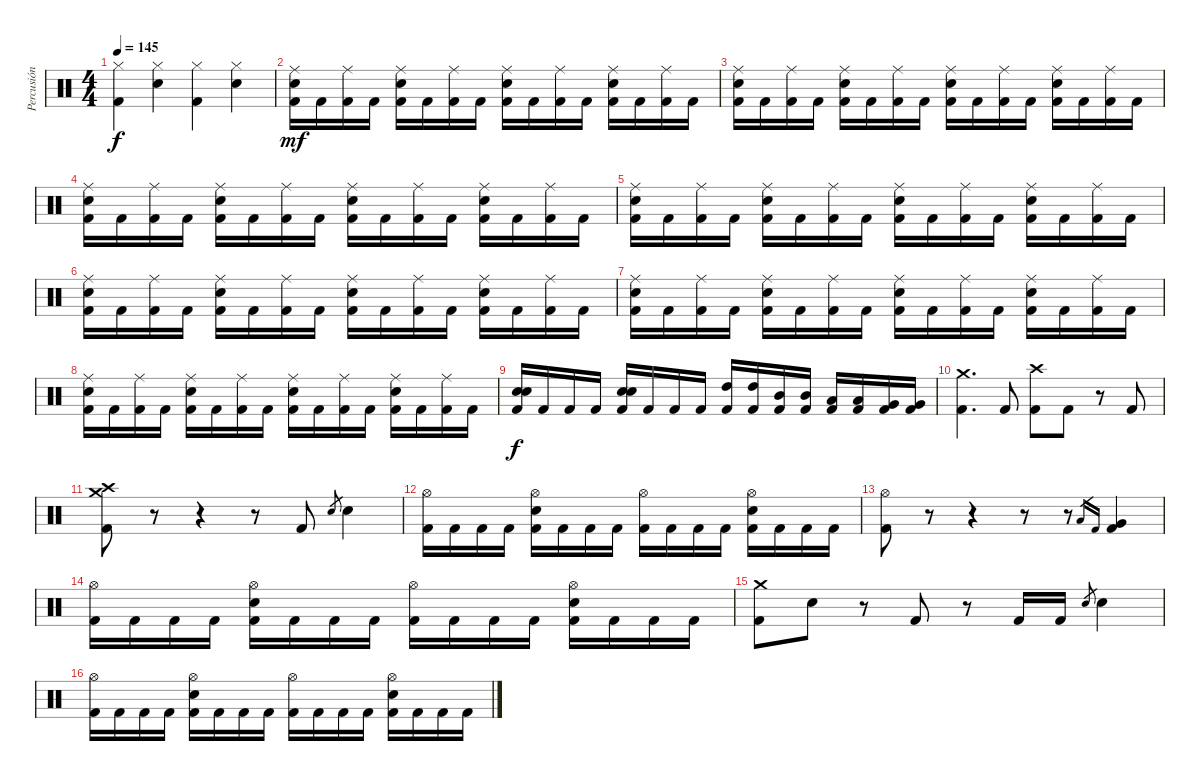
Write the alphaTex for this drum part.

\track ("Percusión" "Percusión") {instrument percussion}
\staff {score}
\articulation defaults
\ts (4 4)
\tempo 145
\clef neutral
\ks c
("Hi-Hat (closed)" "Kick (hit) 2").4{dy f} ("Hi-Hat (closed)" "Snare (hit) 2").4 ("Hi-Hat (closed)" "Kick (hit) 2").4 ("Hi-Hat (closed)" "Snare (hit) 2").4 |
("Ride (middle)" "Snare (hit) 2" "Kick (hit) 2").16{dy mf} "Kick (hit) 2".16 ("Ride (middle)" "Kick (hit) 2").16 "Kick (hit) 2".16 ("Ride (middle)" "Snare (hit) 2" "Kick (hit) 2").16 "Kick (hit) 2".16 ("Ride (middle)" "Kick (hit) 2").16 "Kick (hit) 2".16 ("Ride (middle)" "Snare (hit) 2" "Kick (hit) 2").16 "Kick (hit) 2".16 ("Ride (middle)" "Kick (hit) 2").16 "Kick (hit) 2".16 ("Ride (middle)" "Snare (hit) 2" "Kick (hit) 2").16 "Kick (hit) 2".16 ("Ride (middle)" "Kick (hit) 2").16 "Kick (hit) 2".16 |
("Ride (middle)" "Snare (hit) 2" "Kick (hit) 2").16 "Kick (hit) 2".16 ("Ride (middle)" "Kick (hit) 2").16 "Kick (hit) 2".16 ("Ride (middle)" "Snare (hit) 2" "Kick (hit) 2").16 "Kick (hit) 2".16 ("Ride (middle)" "Kick (hit) 2").16 "Kick (hit) 2".16 ("Ride (middle)" "Snare (hit) 2" "Kick (hit) 2").16 "Kick (hit) 2".16 ("Ride (middle)" "Kick (hit) 2").16 "Kick (hit) 2".16 ("Ride (middle)" "Snare (hit) 2" "Kick (hit) 2").16 "Kick (hit) 2".16 ("Ride (middle)" "Kick (hit) 2").16 "Kick (hit) 2".16 |
("Ride (middle)" "Snare (hit) 2" "Kick (hit) 2").16 "Kick (hit) 2".16 ("Ride (middle)" "Kick (hit) 2").16 "Kick (hit) 2".16 ("Ride (middle)" "Snare (hit) 2" "Kick (hit) 2").16 "Kick (hit) 2".16 ("Ride (middle)" "Kick (hit) 2").16 "Kick (hit) 2".16 ("Ride (middle)" "Snare (hit) 2" "Kick (hit) 2").16 "Kick (hit) 2".16 ("Ride (middle)" "Kick (hit) 2").16 "Kick (hit) 2".16 ("Ride (middle)" "Snare (hit) 2" "Kick (hit) 2").16 "Kick (hit) 2".16 ("Ride (middle)" "Kick (hit) 2").16 "Kick (hit) 2".16 |
("Ride (middle)" "Snare (hit) 2" "Kick (hit) 2").16 "Kick (hit) 2".16 ("Ride (middle)" "Kick (hit) 2").16 "Kick (hit) 2".16 ("Ride (middle)" "Snare (hit) 2" "Kick (hit) 2").16 "Kick (hit) 2".16 ("Ride (middle)" "Kick (hit) 2").16 "Kick (hit) 2".16 ("Ride (middle)" "Snare (hit) 2" "Kick (hit) 2").16 "Kick (hit) 2".16 ("Ride (middle)" "Kick (hit) 2").16 "Kick (hit) 2".16 ("Ride (middle)" "Snare (hit) 2" "Kick (hit) 2").16 "Kick (hit) 2".16 ("Ride (middle)" "Kick (hit) 2").16 "Kick (hit) 2".16 |
("Ride (middle)" "Snare (hit) 2" "Kick (hit) 2").16 "Kick (hit) 2".16 ("Ride (middle)" "Kick (hit) 2").16 "Kick (hit) 2".16 ("Ride (middle)" "Snare (hit) 2" "Kick (hit) 2").16 "Kick (hit) 2".16 ("Ride (middle)" "Kick (hit) 2").16 "Kick (hit) 2".16 ("Ride (middle)" "Snare (hit) 2" "Kick (hit) 2").16 "Kick (hit) 2".16 ("Ride (middle)" "Kick (hit) 2").16 "Kick (hit) 2".16 ("Ride (middle)" "Snare (hit) 2" "Kick (hit) 2").16 "Kick (hit) 2".16 ("Ride (middle)" "Kick (hit) 2").16 "Kick (hit) 2".16 |
("Ride (middle)" "Snare (hit) 2" "Kick (hit) 2").16 "Kick (hit) 2".16 ("Ride (middle)" "Kick (hit) 2").16 "Kick (hit) 2".16 ("Ride (middle)" "Snare (hit) 2" "Kick (hit) 2").16 "Kick (hit) 2".16 ("Ride (middle)" "Kick (hit) 2").16 "Kick (hit) 2".16 ("Ride (middle)" "Snare (hit) 2" "Kick (hit) 2").16 "Kick (hit) 2".16 ("Ride (middle)" "Kick (hit) 2").16 "Kick (hit) 2".16 ("Ride (middle)" "Snare (hit) 2" "Kick (hit) 2").16 "Kick (hit) 2".16 ("Ride (middle)" "Kick (hit) 2").16 "Kick (hit) 2".16 |
("Ride (middle)" "Snare (hit) 2" "Kick (hit) 2").16 "Kick (hit) 2".16 ("Ride (middle)" "Kick (hit) 2").16 "Kick (hit) 2".16 ("Ride (middle)" "Snare (hit) 2" "Kick (hit) 2").16 "Kick (hit) 2".16 ("Ride (middle)" "Kick (hit) 2").16 "Kick (hit) 2".16 ("Ride (middle)" "Snare (hit) 2" "Kick (hit) 2").16 "Kick (hit) 2".16 ("Ride (middle)" "Kick (hit) 2").16 "Kick (hit) 2".16 ("Ride (middle)" "Snare (hit) 2" "Kick (hit) 2").16 "Kick (hit) 2".16 ("Ride (middle)" "Kick (hit) 2").16 "Kick (hit) 2".16 |
("Snare (hit) 2" "Snare (hit) 2" "Kick (hit) 2").16{dy f} "Kick (hit) 2".16 "Kick (hit) 2".16 "Kick (hit) 2".16 ("Snare (hit) 2" "Snare (hit) 2" "Kick (hit) 2").16 "Kick (hit) 2".16 "Kick (hit) 2".16 "Kick (hit) 2".16 ("High Tom (hit)" "Kick (hit) 2").16 ("High Tom (hit)" "Kick (hit) 2").16 ("Mid Tom (hit)" "Kick (hit) 2").16 ("Mid Tom (hit)" "Kick (hit) 2").16 ("Low Tom (hit)" "Kick (hit) 2").16 ("Low Tom (hit)" "Kick (hit) 2").16 ("Very Low Tom (hit)" "Kick (hit) 2").16 ("Very Low Tom (hit)" "Kick (hit) 2").16 |
("Crash medium (hit)" "Kick (hit) 2").4{d} "Kick (hit) 2".8 ("Crash high (hit)" "Kick (hit) 2").8 "Kick (hit) 2".8 r.8 "Kick (hit) 2".8 |
("Crash medium (hit)" "Crash high (hit)" "Kick (hit) 2").8 r.8 r.4 r.8 "Kick (hit) 2".8 "Snare (hit) 2".8{gr} "Snare (hit) 2".4 |
("Hi-Hat (open)" "Kick (hit) 2").16 "Kick (hit) 2".16 "Kick (hit) 2".16 "Kick (hit) 2".16 ("Hi-Hat (open)" "Snare (hit) 2" "Kick (hit) 2").16 "Kick (hit) 2".16 "Kick (hit) 2".16 "Kick (hit) 2".16 ("Hi-Hat (open)" "Kick (hit) 2").16 "Kick (hit) 2".16 "Kick (hit) 2".16 "Kick (hit) 2".16 ("Hi-Hat (open)" "Snare (hit) 2" "Kick (hit) 2").16 "Kick (hit) 2".16 "Kick (hit) 2".16 "Kick (hit) 2".16 |
("Hi-Hat (open)" "Kick (hit) 2").8 r.8 r.4 r.8 r.8 "Low Tom (hit)".16{gr} "Kick (hit) 2".16{gr} ("Very Low Tom (hit)" "Kick (hit) 2").4 |
("Hi-Hat (open)" "Kick (hit) 2").16 "Kick (hit) 2".16 "Kick (hit) 2".16 "Kick (hit) 2".16 ("Hi-Hat (open)" "Snare (hit) 2" "Kick (hit) 2").16 "Kick (hit) 2".16 "Kick (hit) 2".16 "Kick (hit) 2".16 ("Hi-Hat (open)" "Kick (hit) 2").16 "Kick (hit) 2".16 "Kick (hit) 2".16 "Kick (hit) 2".16 ("Hi-Hat (open)" "Snare (hit) 2" "Kick (hit) 2").16 "Kick (hit) 2".16 "Kick (hit) 2".16 "Kick (hit) 2".16 |
("Crash medium (hit)" "Kick (hit) 2").8 "Snare (hit) 2".8 r.8 "Kick (hit) 2".8 r.8 "Kick (hit) 2".16 "Kick (hit) 2".16 "Snare (hit) 2".8{gr} "Snare (hit) 2".4 |
("Hi-Hat (open)" "Kick (hit) 2").16 "Kick (hit) 2".16 "Kick (hit) 2".16 "Kick (hit) 2".16 ("Hi-Hat (open)" "Snare (hit) 2" "Kick (hit) 2").16 "Kick (hit) 2".16 "Kick (hit) 2".16 "Kick (hit) 2".16 ("Hi-Hat (open)" "Kick (hit) 2").16 "Kick (hit) 2".16 "Kick (hit) 2".16 "Kick (hit) 2".16 ("Hi-Hat (open)" "Snare (hit) 2" "Kick (hit) 2").16 "Kick (hit) 2".16 "Kick (hit) 2".16 "Kick (hit) 2".16
